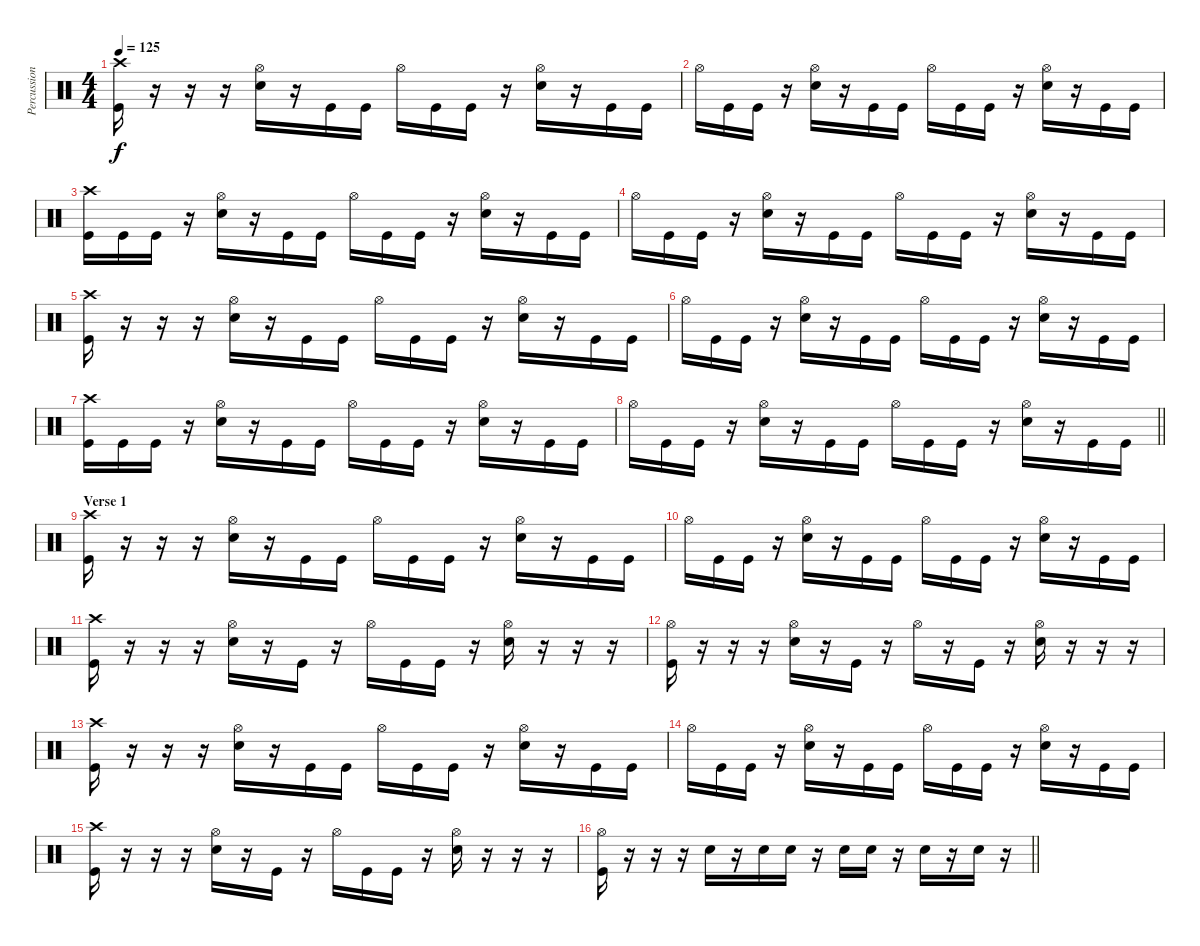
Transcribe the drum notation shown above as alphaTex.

\track ("Percussion" "Percussion") {instrument percussion}
\staff {score}
\articulation defaults
\ts (4 4)
\tempo 125
\clef neutral
\ks c
("Crash high (hit)" "Kick (hit)").16{dy f} r.16 r.16 r.16 ("Hi-Hat (open)" "Electric Snare (hit)").16 r.16 "Kick (hit)".16 "Kick (hit)".16 "Hi-Hat (open)".16 "Kick (hit)".16 "Kick (hit)".16 r.16 ("Hi-Hat (open)" "Electric Snare (hit)").16 r.16 "Kick (hit)".16 "Kick (hit)".16 |
"Hi-Hat (open)".16 "Kick (hit)".16 "Kick (hit)".16 r.16 ("Hi-Hat (open)" "Electric Snare (hit)").16 r.16 "Kick (hit)".16 "Kick (hit)".16 "Hi-Hat (open)".16 "Kick (hit)".16 "Kick (hit)".16 r.16 ("Hi-Hat (open)" "Electric Snare (hit)").16 r.16 "Kick (hit)".16 "Kick (hit)".16 |
("Crash high (hit)" "Kick (hit)").16 "Kick (hit)".16 "Kick (hit)".16 r.16 ("Hi-Hat (open)" "Electric Snare (hit)").16 r.16 "Kick (hit)".16 "Kick (hit)".16 "Hi-Hat (open)".16 "Kick (hit)".16 "Kick (hit)".16 r.16 ("Hi-Hat (open)" "Electric Snare (hit)").16 r.16 "Kick (hit)".16 "Kick (hit)".16 |
"Hi-Hat (open)".16 "Kick (hit)".16 "Kick (hit)".16 r.16 ("Hi-Hat (open)" "Electric Snare (hit)").16 r.16 "Kick (hit)".16 "Kick (hit)".16 "Hi-Hat (open)".16 "Kick (hit)".16 "Kick (hit)".16 r.16 ("Hi-Hat (open)" "Electric Snare (hit)").16 r.16 "Kick (hit)".16 "Kick (hit)".16 |
("Crash high (hit)" "Kick (hit)").16 r.16 r.16 r.16 ("Hi-Hat (open)" "Electric Snare (hit)").16 r.16 "Kick (hit)".16 "Kick (hit)".16 "Hi-Hat (open)".16 "Kick (hit)".16 "Kick (hit)".16 r.16 ("Hi-Hat (open)" "Electric Snare (hit)").16 r.16 "Kick (hit)".16 "Kick (hit)".16 |
"Hi-Hat (open)".16 "Kick (hit)".16 "Kick (hit)".16 r.16 ("Hi-Hat (open)" "Electric Snare (hit)").16 r.16 "Kick (hit)".16 "Kick (hit)".16 "Hi-Hat (open)".16 "Kick (hit)".16 "Kick (hit)".16 r.16 ("Hi-Hat (open)" "Electric Snare (hit)").16 r.16 "Kick (hit)".16 "Kick (hit)".16 |
("Crash high (hit)" "Kick (hit)").16 "Kick (hit)".16 "Kick (hit)".16 r.16 ("Hi-Hat (open)" "Electric Snare (hit)").16 r.16 "Kick (hit)".16 "Kick (hit)".16 "Hi-Hat (open)".16 "Kick (hit)".16 "Kick (hit)".16 r.16 ("Hi-Hat (open)" "Electric Snare (hit)").16 r.16 "Kick (hit)".16 "Kick (hit)".16 |
\barLineRight lightlight "Hi-Hat (open)".16 "Kick (hit)".16 "Kick (hit)".16
r.16 ("Hi-Hat (open)" "Electric Snare (hit)").16 r.16 "Kick (hit)".16 "Kick (hit)".16 "Hi-Hat (open)".16 "Kick (hit)".16 "Kick (hit)".16 r.16 ("Hi-Hat (open)" "Electric Snare (hit)").16 r.16 "Kick (hit)".16 "Kick (hit)".16 |
\section ("" "Verse 1")
("Crash high (hit)" "Kick (hit)").16 r.16 r.16 r.16 ("Hi-Hat (open)" "Electric Snare (hit)").16 r.16 "Kick (hit)".16 "Kick (hit)".16 "Hi-Hat (open)".16 "Kick (hit)".16 "Kick (hit)".16 r.16 ("Hi-Hat (open)" "Electric Snare (hit)").16 r.16 "Kick (hit)".16 "Kick (hit)".16 |
"Hi-Hat (open)".16 "Kick (hit)".16 "Kick (hit)".16 r.16 ("Hi-Hat (open)" "Electric Snare (hit)").16 r.16 "Kick (hit)".16 "Kick (hit)".16 "Hi-Hat (open)".16 "Kick (hit)".16 "Kick (hit)".16 r.16 ("Hi-Hat (open)" "Electric Snare (hit)").16 r.16 "Kick (hit)".16 "Kick (hit)".16 |
("Crash high (hit)" "Kick (hit)").16 r.16 r.16 r.16 ("Hi-Hat (open)" "Electric Snare (hit)").16 r.16 "Kick (hit)".16 r.16 "Hi-Hat (open)".16 "Kick (hit)".16 "Kick (hit)".16 r.16 ("Hi-Hat (open)" "Electric Snare (hit)").16 r.16 r.16 r.16 |
("Hi-Hat (open)" "Kick (hit)").16 r.16 r.16 r.16 ("Hi-Hat (open)" "Electric Snare (hit)").16 r.16 "Kick (hit)".16 r.16 "Hi-Hat (open)".16 r.16 "Kick (hit)".16 r.16 ("Hi-Hat (open)" "Electric Snare (hit)").16 r.16 r.16 r.16 |
("Crash high (hit)" "Kick (hit)").16 r.16 r.16 r.16 ("Hi-Hat (open)" "Electric Snare (hit)").16 r.16 "Kick (hit)".16 "Kick (hit)".16 "Hi-Hat (open)".16 "Kick (hit)".16 "Kick (hit)".16 r.16 ("Hi-Hat (open)" "Electric Snare (hit)").16 r.16 "Kick (hit)".16 "Kick (hit)".16 |
"Hi-Hat (open)".16 "Kick (hit)".16 "Kick (hit)".16 r.16 ("Hi-Hat (open)" "Electric Snare (hit)").16 r.16 "Kick (hit)".16 "Kick (hit)".16 "Hi-Hat (open)".16 "Kick (hit)".16 "Kick (hit)".16 r.16 ("Hi-Hat (open)" "Electric Snare (hit)").16 r.16 "Kick (hit)".16 "Kick (hit)".16 |
("Crash high (hit)" "Kick (hit)").16 r.16 r.16 r.16 ("Hi-Hat (open)" "Electric Snare (hit)").16 r.16 "Kick (hit)".16 r.16 "Hi-Hat (open)".16 "Kick (hit)".16 "Kick (hit)".16 r.16 ("Hi-Hat (open)" "Electric Snare (hit)").16 r.16 r.16 r.16 |
\barLineRight lightlight
("Hi-Hat (open)" "Kick (hit)").16 r.16 r.16 r.16 "Electric Snare (hit)".16 r.16 "Electric Snare (hit)".16 "Electric Snare (hit)".16 r.16 "Electric Snare (hit)".16 "Electric Snare (hit)".16 r.16 "Electric Snare (hit)".16 r.16 "Electric Snare (hit)".16 r.16
